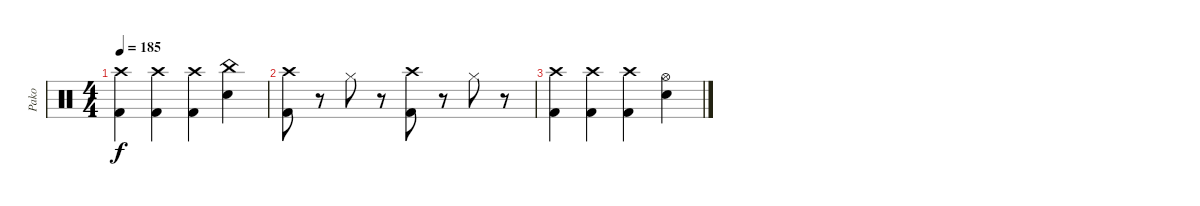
\track ("Pako" "Pako") {instrument percussion}
\staff {score}
\articulation defaults
\ts (4 4)
\tempo 185
\clef neutral
\ks c
("Crash high (hit)" "Kick (hit) 2").4{dy f} ("Crash high (hit)" "Kick (hit) 2").4 ("Crash high (hit)" "Kick (hit) 2").4 ("China (hit)" "Snare (hit) 2").4 |
("Crash high (hit)" "Kick (hit) 2").8 r.8 "Hi-Hat (closed)".8 r.8 ("Crash high (hit)" "Kick (hit) 2").8 r.8 "Hi-Hat (closed)".8 r.8 |
("Crash high (hit)" "Kick (hit) 2").4 ("Crash high (hit)" "Kick (hit) 2").4 ("Crash high (hit)" "Kick (hit) 2").4 ("Hi-Hat (open)" "Snare (hit) 2").4
